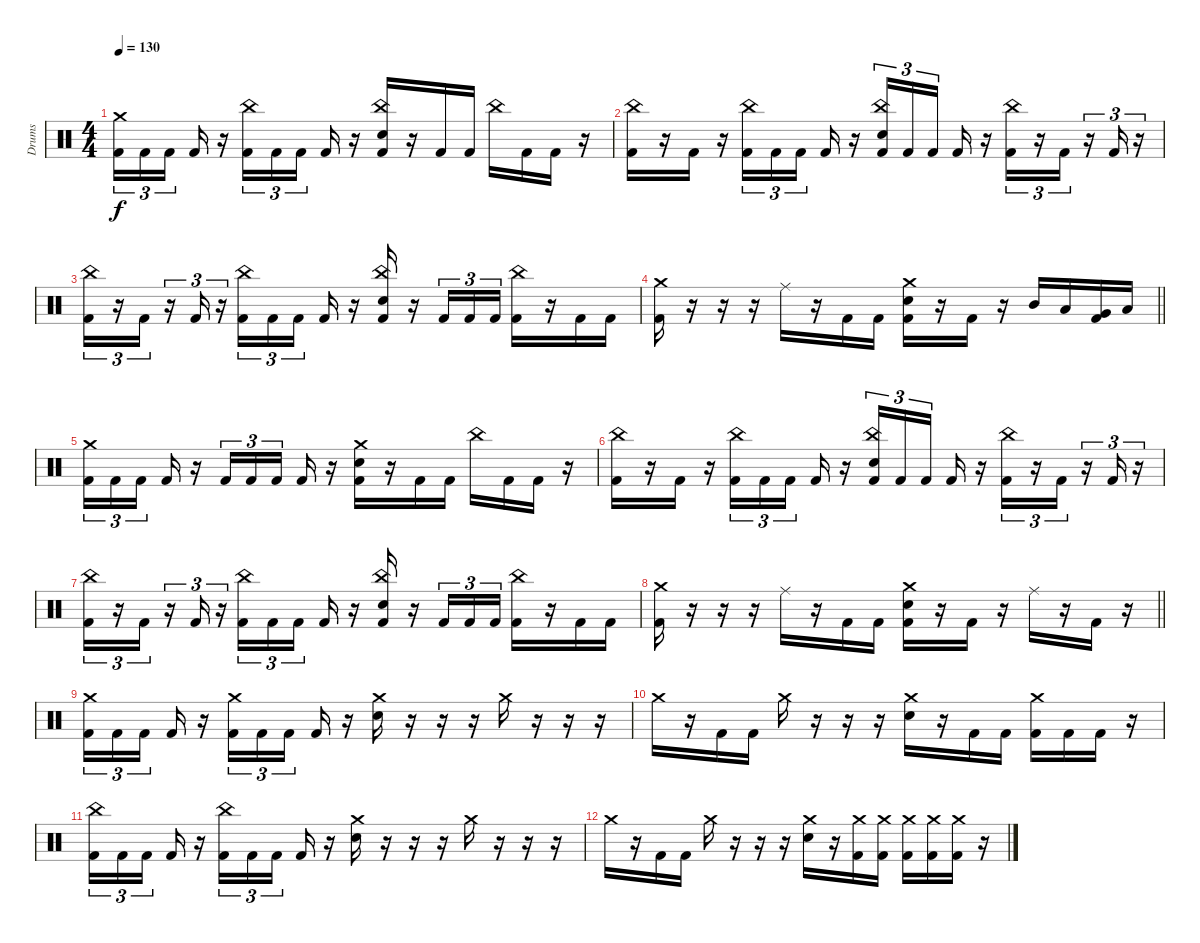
\track ("Drums" "Drums") {instrument percussion}
\staff {score}
\articulation defaults
\ts (4 4)
\tempo 130
\clef neutral
\ks c
("Crash medium (hit)" "Kick (hit) 2").16{tu (3 2) dy f} "Kick (hit) 2".16{tu (3 2)} "Kick (hit) 2".16{tu (3 2) beam splitsecondary} "Kick (hit) 2".16 r.16 ("China (hit)" "Kick (hit) 2").16{tu (3 2)} "Kick (hit) 2".16{tu (3 2)} "Kick (hit) 2".16{tu (3 2) beam splitsecondary} "Kick (hit) 2".16 r.16 ("China (hit)" "Snare (hit) 2" "Kick (hit) 2").16 r.16 "Kick (hit) 2".16 "Kick (hit) 2".16 "China (hit)".16 "Kick (hit) 2".16 "Kick (hit) 2".16 r.16 |
("China (hit)" "Kick (hit) 2").16 r.16 "Kick (hit) 2".16 r.16 ("China (hit)" "Kick (hit) 2").16{tu (3 2)} "Kick (hit) 2".16{tu (3 2)} "Kick (hit) 2".16{tu (3 2) beam splitsecondary} "Kick (hit) 2".16 r.16 ("China (hit)" "Snare (hit) 2" "Kick (hit) 2").16{tu (3 2)} "Kick (hit) 2".16{tu (3 2)} "Kick (hit) 2".16{tu (3 2) beam splitsecondary} "Kick (hit) 2".16 r.16 ("China (hit)" "Kick (hit) 2").16{tu (3 2)} r.16{tu (3 2)} "Kick (hit) 2".16{tu (3 2)} r.16{tu (3 2)} "Kick (hit) 2".16{tu (3 2)} r.16{tu (3 2)} |
("China (hit)" "Kick (hit) 2").16{tu (3 2)} r.16{tu (3 2)} "Kick (hit) 2".16{tu (3 2)} r.16{tu (3 2)} "Kick (hit) 2".16{tu (3 2)} r.16{tu (3 2)} ("China (hit)" "Kick (hit) 2").16{tu (3 2)} "Kick (hit) 2".16{tu (3 2)} "Kick (hit) 2".16{tu (3 2) beam splitsecondary} "Kick (hit) 2".16 r.16 ("China (hit)" "Snare (hit) 2" "Kick (hit) 2").16 r.16 "Kick (hit) 2".16{tu (3 2)} "Kick (hit) 2".16{tu (3 2)} "Kick (hit) 2".16{tu (3 2)} ("China (hit)" "Kick (hit) 2").16 r.16 "Kick (hit) 2".16 "Kick (hit) 2".16 |
\barLineRight lightlight
("Crash medium (hit)" "Kick (hit) 2").16 r.16 r.16 r.16 "Ride (middle)".16 r.16 "Kick (hit) 2".16 "Kick (hit) 2".16 ("Crash medium (hit)" "Snare (hit) 2" "Kick (hit) 2").16 r.16 "Kick (hit) 2".16 r.16 "Mid Tom (hit)".16 "Low Tom (hit)".16 ("Very Low Tom (hit)" "Kick (hit) 2").16 "Low Floor Tom (hit)".16 |
("Crash medium (hit)" "Kick (hit) 2").16{tu (3 2)} "Kick (hit) 2".16{tu (3 2)} "Kick (hit) 2".16{tu (3 2) beam splitsecondary} "Kick (hit) 2".16 r.16 "Kick (hit) 2".16{tu (3 2)} "Kick (hit) 2".16{tu (3 2)} "Kick (hit) 2".16{tu (3 2) beam splitsecondary} "Kick (hit) 2".16 r.16 ("Crash medium (hit)" "Snare (hit) 2" "Kick (hit) 2").16 r.16 "Kick (hit) 2".16 "Kick (hit) 2".16 "China (hit)".16 "Kick (hit) 2".16 "Kick (hit) 2".16 r.16 |
("China (hit)" "Kick (hit) 2").16 r.16 "Kick (hit) 2".16 r.16 ("China (hit)" "Kick (hit) 2").16{tu (3 2)} "Kick (hit) 2".16{tu (3 2)} "Kick (hit) 2".16{tu (3 2) beam splitsecondary} "Kick (hit) 2".16 r.16 ("China (hit)" "Snare (hit) 2" "Kick (hit) 2").16{tu (3 2)} "Kick (hit) 2".16{tu (3 2)} "Kick (hit) 2".16{tu (3 2) beam splitsecondary} "Kick (hit) 2".16 r.16 ("China (hit)" "Kick (hit) 2").16{tu (3 2)} r.16{tu (3 2)} "Kick (hit) 2".16{tu (3 2)} r.16{tu (3 2)} "Kick (hit) 2".16{tu (3 2)} r.16{tu (3 2)} |
("China (hit)" "Kick (hit) 2").16{tu (3 2)} r.16{tu (3 2)} "Kick (hit) 2".16{tu (3 2)} r.16{tu (3 2)} "Kick (hit) 2".16{tu (3 2)} r.16{tu (3 2)} ("China (hit)" "Kick (hit) 2").16{tu (3 2)} "Kick (hit) 2".16{tu (3 2)} "Kick (hit) 2".16{tu (3 2) beam splitsecondary} "Kick (hit) 2".16 r.16 ("China (hit)" "Snare (hit) 2" "Kick (hit) 2").16 r.16 "Kick (hit) 2".16{tu (3 2)} "Kick (hit) 2".16{tu (3 2)} "Kick (hit) 2".16{tu (3 2)} ("China (hit)" "Kick (hit) 2").16 r.16 "Kick (hit) 2".16 "Kick (hit) 2".16 |
\barLineRight lightlight
("Crash medium (hit)" "Kick (hit) 2").16 r.16 r.16 r.16 "Ride (middle)".16 r.16 "Kick (hit) 2".16 "Kick (hit) 2".16 ("Crash medium (hit)" "Snare (hit) 2" "Kick (hit) 2").16 r.16 "Kick (hit) 2".16 r.16 "Ride (middle)".16 r.16 "Kick (hit) 2".16 r.16 |
("Crash medium (hit)" "Kick (hit) 2").16{tu (3 2)} "Kick (hit) 2".16{tu (3 2)} "Kick (hit) 2".16{tu (3 2) beam splitsecondary} "Kick (hit) 2".16 r.16 ("Crash medium (hit)" "Kick (hit) 2").16{tu (3 2)} "Kick (hit) 2".16{tu (3 2)} "Kick (hit) 2".16{tu (3 2) beam splitsecondary} "Kick (hit) 2".16 r.16 ("Crash medium (hit)" "Snare (hit) 2").16 r.16 r.16 r.16 "Crash medium (hit)".16 r.16 r.16 r.16 |
"Crash medium (hit)".16 r.16 "Kick (hit) 2".16 "Kick (hit) 2".16 "Crash medium (hit)".16 r.16 r.16 r.16 ("Crash medium (hit)" "Snare (hit) 2").16 r.16 "Kick (hit) 2".16 "Kick (hit) 2".16 ("Crash medium (hit)" "Kick (hit) 2").16 "Kick (hit) 2".16 "Kick (hit) 2".16 r.16 |
("China (hit)" "Kick (hit) 2").16{tu (3 2)} "Kick (hit) 2".16{tu (3 2)} "Kick (hit) 2".16{tu (3 2) beam splitsecondary} "Kick (hit) 2".16 r.16 ("China (hit)" "Kick (hit) 2").16{tu (3 2)} "Kick (hit) 2".16{tu (3 2)} "Kick (hit) 2".16{tu (3 2) beam splitsecondary} "Kick (hit) 2".16 r.16 ("Crash medium (hit)" "Snare (hit) 2").16 r.16 r.16 r.16 "Crash medium (hit)".16 r.16 r.16 r.16 |
"Crash medium (hit)".16 r.16 "Kick (hit) 2".16 "Kick (hit) 2".16 "Crash medium (hit)".16 r.16 r.16 r.16 ("Crash medium (hit)" "Snare (hit) 2").16 r.16 ("Crash medium (hit)" "Kick (hit) 2").16 ("Crash medium (hit)" "Kick (hit) 2").16 ("Crash medium (hit)" "Kick (hit) 2").16 ("Crash medium (hit)" "Kick (hit) 2").16 ("Crash medium (hit)" "Kick (hit) 2").16 r.16
